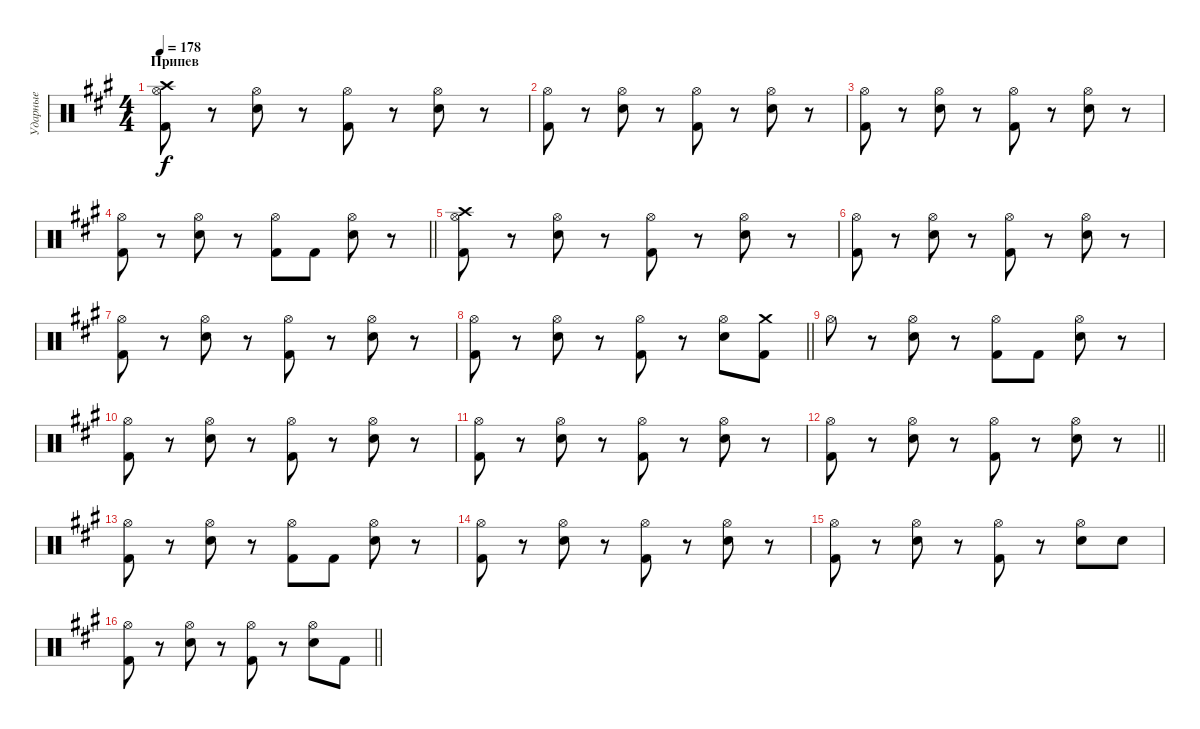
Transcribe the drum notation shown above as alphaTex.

\track ("Ударные" "Ударные") {instrument percussion}
\staff {score}
\articulation defaults
\ts (4 4)
\section ("" "Припев")
\tempo 178
\clef neutral
\ks f#minor
("Crash high (hit)" "Kick (hit) 2" "Hi-Hat (open)").8{dy f} r.8 ("Electric Snare (hit)" "Hi-Hat (open)").8 r.8 ("Kick (hit) 2" "Hi-Hat (open)").8 r.8 ("Electric Snare (hit)" "Hi-Hat (open)").8 r.8 |
("Kick (hit) 2" "Hi-Hat (open)").8 r.8 ("Electric Snare (hit)" "Hi-Hat (open)").8 r.8 ("Kick (hit) 2" "Hi-Hat (open)").8 r.8 ("Electric Snare (hit)" "Hi-Hat (open)").8 r.8 |
("Kick (hit) 2" "Hi-Hat (open)").8 r.8 ("Electric Snare (hit)" "Hi-Hat (open)").8 r.8 ("Kick (hit) 2" "Hi-Hat (open)").8 r.8 ("Electric Snare (hit)" "Hi-Hat (open)").8 r.8 |
\barLineRight lightlight
("Kick (hit) 2" "Hi-Hat (open)").8 r.8 ("Electric Snare (hit)" "Hi-Hat (open)").8 r.8 ("Kick (hit) 2" "Hi-Hat (open)").8 "Kick (hit) 2".8 ("Electric Snare (hit)" "Hi-Hat (open)").8 r.8 |
("Crash high (hit)" "Kick (hit) 2" "Hi-Hat (open)").8 r.8 ("Electric Snare (hit)" "Hi-Hat (open)").8 r.8 ("Kick (hit) 2" "Hi-Hat (open)").8 r.8 ("Electric Snare (hit)" "Hi-Hat (open)").8 r.8 |
("Kick (hit) 2" "Hi-Hat (open)").8 r.8 ("Electric Snare (hit)" "Hi-Hat (open)").8 r.8 ("Kick (hit) 2" "Hi-Hat (open)").8 r.8 ("Electric Snare (hit)" "Hi-Hat (open)").8 r.8 |
("Kick (hit) 2" "Hi-Hat (open)").8 r.8 ("Electric Snare (hit)" "Hi-Hat (open)").8 r.8 ("Kick (hit) 2" "Hi-Hat (open)").8 r.8 ("Electric Snare (hit)" "Hi-Hat (open)").8 r.8 |
\barLineRight lightlight
("Kick (hit) 2" "Hi-Hat (open)").8 r.8 ("Electric Snare (hit)" "Hi-Hat (open)").8 r.8 ("Kick (hit) 2" "Hi-Hat (open)").8 r.8 ("Electric Snare (hit)" "Hi-Hat (open)").8 ("Crash medium (hit)" "Kick (hit) 2").8 |
"Hi-Hat (open)".8 r.8 ("Electric Snare (hit)" "Hi-Hat (open)").8 r.8 ("Kick (hit) 2" "Hi-Hat (open)").8 "Kick (hit) 2".8 ("Electric Snare (hit)" "Hi-Hat (open)").8 r.8 |
("Kick (hit) 2" "Hi-Hat (open)").8 r.8 ("Electric Snare (hit)" "Hi-Hat (open)").8 r.8 ("Kick (hit) 2" "Hi-Hat (open)").8 r.8 ("Electric Snare (hit)" "Hi-Hat (open)").8 r.8 |
("Kick (hit) 2" "Hi-Hat (open)").8 r.8 ("Electric Snare (hit)" "Hi-Hat (open)").8 r.8 ("Kick (hit) 2" "Hi-Hat (open)").8 r.8 ("Electric Snare (hit)" "Hi-Hat (open)").8 r.8 |
\barLineRight lightlight
("Kick (hit) 2" "Hi-Hat (open)").8 r.8 ("Electric Snare (hit)" "Hi-Hat (open)").8 r.8 ("Kick (hit) 2" "Hi-Hat (open)").8 r.8 ("Electric Snare (hit)" "Hi-Hat (open)").8 r.8 |
("Kick (hit) 2" "Hi-Hat (open)").8 r.8 ("Electric Snare (hit)" "Hi-Hat (open)").8 r.8 ("Kick (hit) 2" "Hi-Hat (open)").8 "Kick (hit) 2".8 ("Electric Snare (hit)" "Hi-Hat (open)").8 r.8 |
("Kick (hit) 2" "Hi-Hat (open)").8 r.8 ("Electric Snare (hit)" "Hi-Hat (open)").8 r.8 ("Kick (hit) 2" "Hi-Hat (open)").8 r.8 ("Electric Snare (hit)" "Hi-Hat (open)").8 r.8 |
("Kick (hit) 2" "Hi-Hat (open)").8 r.8 ("Electric Snare (hit)" "Hi-Hat (open)").8 r.8 ("Kick (hit) 2" "Hi-Hat (open)").8 r.8 ("Electric Snare (hit)" "Hi-Hat (open)").8 "Electric Snare (hit)".8 |
\barLineRight lightlight
("Kick (hit) 2" "Hi-Hat (open)").8 r.8 ("Electric Snare (hit)" "Hi-Hat (open)").8 r.8 ("Kick (hit) 2" "Hi-Hat (open)").8 r.8 ("Electric Snare (hit)" "Hi-Hat (open)").8 "Kick (hit) 2".8
